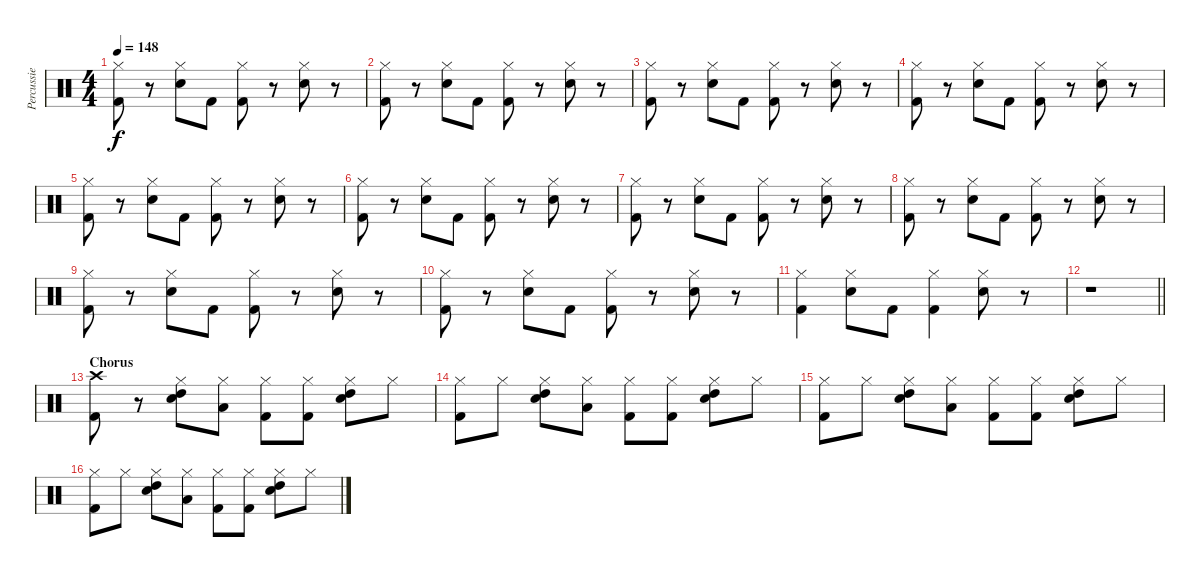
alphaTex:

\track ("Percussie" "Percussie") {instrument percussion}
\staff {score}
\articulation defaults
\ts (4 4)
\tempo 148
\clef neutral
\ks c
("Hi-Hat (closed)" "Kick (hit) 2").8{dy f} r.8 ("Hi-Hat (closed)" "Electric Snare (hit)").8 "Kick (hit) 2".8 ("Hi-Hat (closed)" "Kick (hit) 2").8 r.8 ("Hi-Hat (closed)" "Electric Snare (hit)").8 r.8 |
("Hi-Hat (closed)" "Kick (hit) 2").8 r.8 ("Hi-Hat (closed)" "Electric Snare (hit)").8 "Kick (hit) 2".8 ("Hi-Hat (closed)" "Kick (hit) 2").8 r.8 ("Hi-Hat (closed)" "Electric Snare (hit)").8 r.8 |
("Hi-Hat (closed)" "Kick (hit) 2").8 r.8 ("Hi-Hat (closed)" "Electric Snare (hit)").8 "Kick (hit) 2".8 ("Hi-Hat (closed)" "Kick (hit) 2").8 r.8 ("Hi-Hat (closed)" "Electric Snare (hit)").8 r.8 |
("Hi-Hat (closed)" "Kick (hit) 2").8 r.8 ("Hi-Hat (closed)" "Electric Snare (hit)").8 "Kick (hit) 2".8 ("Hi-Hat (closed)" "Kick (hit) 2").8 r.8 ("Hi-Hat (closed)" "Electric Snare (hit)").8 r.8 |
("Hi-Hat (closed)" "Kick (hit) 2").8 r.8 ("Hi-Hat (closed)" "Electric Snare (hit)").8 "Kick (hit) 2".8 ("Hi-Hat (closed)" "Kick (hit) 2").8 r.8 ("Hi-Hat (closed)" "Electric Snare (hit)").8 r.8 |
("Hi-Hat (closed)" "Kick (hit) 2").8 r.8 ("Hi-Hat (closed)" "Electric Snare (hit)").8 "Kick (hit) 2".8 ("Hi-Hat (closed)" "Kick (hit) 2").8 r.8 ("Hi-Hat (closed)" "Electric Snare (hit)").8 r.8 |
("Hi-Hat (closed)" "Kick (hit) 2").8 r.8 ("Hi-Hat (closed)" "Electric Snare (hit)").8 "Kick (hit) 2".8 ("Hi-Hat (closed)" "Kick (hit) 2").8 r.8 ("Hi-Hat (closed)" "Electric Snare (hit)").8 r.8 |
("Hi-Hat (closed)" "Kick (hit) 2").8 r.8 ("Hi-Hat (closed)" "Electric Snare (hit)").8 "Kick (hit) 2".8 ("Hi-Hat (closed)" "Kick (hit) 2").8 r.8 ("Hi-Hat (closed)" "Electric Snare (hit)").8 r.8 |
("Hi-Hat (closed)" "Kick (hit) 2").8 r.8 ("Hi-Hat (closed)" "Electric Snare (hit)").8 "Kick (hit) 2".8 ("Hi-Hat (closed)" "Kick (hit) 2").8 r.8 ("Hi-Hat (closed)" "Electric Snare (hit)").8 r.8 |
("Hi-Hat (closed)" "Kick (hit) 2").8 r.8 ("Hi-Hat (closed)" "Electric Snare (hit)").8 "Kick (hit) 2".8 ("Hi-Hat (closed)" "Kick (hit) 2").8 r.8 ("Hi-Hat (closed)" "Electric Snare (hit)").8 r.8 |
("Hi-Hat (closed)" "Kick (hit) 2").4 ("Hi-Hat (closed)" "Electric Snare (hit)").8 "Kick (hit) 2".8 ("Hi-Hat (closed)" "Kick (hit) 2").4 ("Hi-Hat (closed)" "Electric Snare (hit)").8 r.8 |
\barLineRight lightlight
r.1 |
\section ("" "Chorus")
("Crash high (hit)" "Kick (hit) 2").8 r.8 ("Hi-Hat (closed)" "Electric Snare (hit)" "High Tom (hit)").8 ("Hi-Hat (closed)" "Low Tom (hit)").8 ("Hi-Hat (closed)" "Kick (hit) 2").8 ("Hi-Hat (closed)" "Kick (hit) 2").8 ("Hi-Hat (closed)" "Electric Snare (hit)" "High Tom (hit)").8 "Hi-Hat (closed)".8 |
("Hi-Hat (closed)" "Kick (hit) 2").8 "Hi-Hat (closed)".8 ("Hi-Hat (closed)" "Electric Snare (hit)" "High Tom (hit)").8 ("Hi-Hat (closed)" "Low Tom (hit)").8 ("Hi-Hat (closed)" "Kick (hit) 2").8 ("Hi-Hat (closed)" "Kick (hit) 2").8 ("Hi-Hat (closed)" "Electric Snare (hit)" "High Tom (hit)").8 "Hi-Hat (closed)".8 |
("Hi-Hat (closed)" "Kick (hit) 2").8 "Hi-Hat (closed)".8 ("Hi-Hat (closed)" "Electric Snare (hit)" "High Tom (hit)").8 ("Hi-Hat (closed)" "Low Tom (hit)").8 ("Hi-Hat (closed)" "Kick (hit) 2").8 ("Hi-Hat (closed)" "Kick (hit) 2").8 ("Hi-Hat (closed)" "Electric Snare (hit)" "High Tom (hit)").8 "Hi-Hat (closed)".8 |
("Hi-Hat (closed)" "Kick (hit) 2").8 "Hi-Hat (closed)".8 ("Hi-Hat (closed)" "Electric Snare (hit)" "High Tom (hit)").8 ("Hi-Hat (closed)" "Low Tom (hit)").8 ("Hi-Hat (closed)" "Kick (hit) 2").8 ("Hi-Hat (closed)" "Kick (hit) 2").8 ("Hi-Hat (closed)" "Electric Snare (hit)" "High Tom (hit)").8 "Hi-Hat (closed)".8
